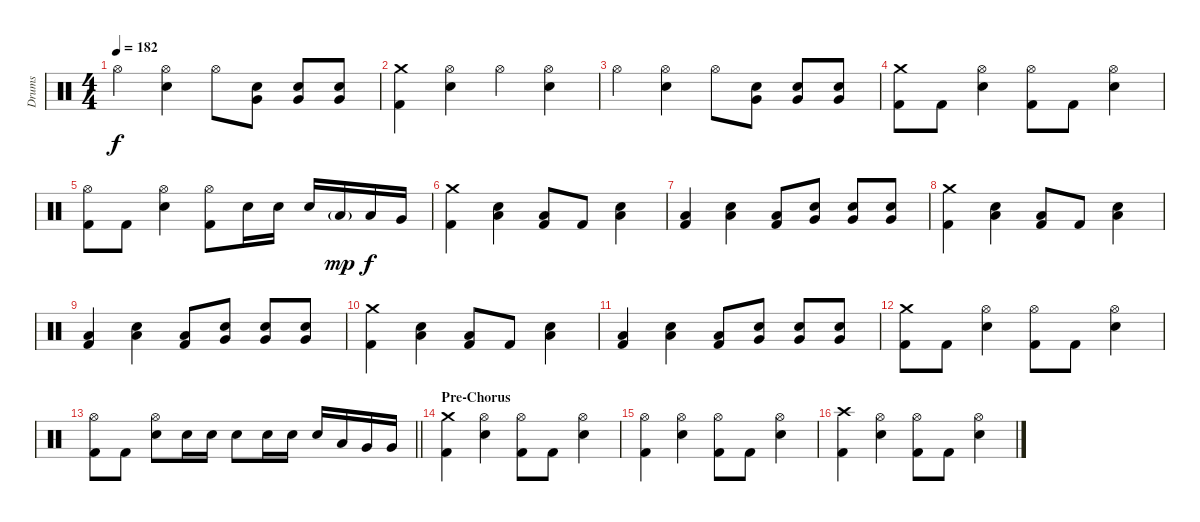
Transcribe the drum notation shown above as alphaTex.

\track ("Drums" "Drums") {instrument percussion}
\staff {score}
\articulation defaults
\ts (4 4)
\tempo 182
\clef neutral
\ks c "Hi-Hat (open)".4{dy f}
("Hi-Hat (open)" "Electric Snare (hit)").4 "Hi-Hat (open)".8 ("Very Low Tom (hit)" "Electric Snare (hit)").8 ("Very Low Tom (hit)" "Electric Snare (hit)").8 ("Very Low Tom (hit)" "Electric Snare (hit)").8 |
("Crash medium (hit)" "Kick (hit) 2").4 ("Hi-Hat (open)" "Electric Snare (hit)").4 "Hi-Hat (open)".4 ("Hi-Hat (open)" "Electric Snare (hit)").4 |
"Hi-Hat (open)".4 ("Hi-Hat (open)" "Electric Snare (hit)").4 "Hi-Hat (open)".8 ("Very Low Tom (hit)" "Electric Snare (hit)").8 ("Very Low Tom (hit)" "Electric Snare (hit)").8 ("Very Low Tom (hit)" "Electric Snare (hit)").8 |
("Crash medium (hit)" "Kick (hit) 2").8 "Kick (hit) 2".8 ("Hi-Hat (open)" "Electric Snare (hit)").4 ("Hi-Hat (open)" "Kick (hit) 2").8 "Kick (hit) 2".8 ("Hi-Hat (open)" "Electric Snare (hit)").4 |
("Hi-Hat (open)" "Kick (hit) 2").8 "Kick (hit) 2".8 ("Hi-Hat (open)" "Electric Snare (hit)").4 ("Hi-Hat (open)" "Kick (hit) 2").8 "Electric Snare (hit)".16 "Electric Snare (hit)".16 "Electric Snare (hit)".16 "Low Tom (hit)"{g}.16{dy mp} "Low Tom (hit)".16{dy f} "Very Low Tom (hit)".16 |
("Crash medium (hit)" "Kick (hit) 2").4 ("Low Floor Tom (hit)" "Electric Snare (hit)").4 ("Low Floor Tom (hit)" "Kick (hit) 2").8 "Kick (hit) 2".8 ("Low Floor Tom (hit)" "Electric Snare (hit)").4 |
("Low Floor Tom (hit)" "Kick (hit) 2").4 ("Low Floor Tom (hit)" "Electric Snare (hit)").4 ("Low Floor Tom (hit)" "Kick (hit) 2").8 ("Very Low Tom (hit)" "Electric Snare (hit)").8 ("Very Low Tom (hit)" "Electric Snare (hit)").8 ("Very Low Tom (hit)" "Electric Snare (hit)").8 |
("Crash medium (hit)" "Kick (hit) 2").4 ("Low Floor Tom (hit)" "Electric Snare (hit)").4 ("Low Floor Tom (hit)" "Kick (hit) 2").8 "Kick (hit) 2".8 ("Low Floor Tom (hit)" "Electric Snare (hit)").4 |
("Low Floor Tom (hit)" "Kick (hit) 2").4 ("Low Floor Tom (hit)" "Electric Snare (hit)").4 ("Low Floor Tom (hit)" "Kick (hit) 2").8 ("Very Low Tom (hit)" "Electric Snare (hit)").8 ("Very Low Tom (hit)" "Electric Snare (hit)").8 ("Very Low Tom (hit)" "Electric Snare (hit)").8 |
("Crash medium (hit)" "Kick (hit) 2").4 ("Low Floor Tom (hit)" "Electric Snare (hit)").4 ("Low Floor Tom (hit)" "Kick (hit) 2").8 "Kick (hit) 2".8 ("Low Floor Tom (hit)" "Electric Snare (hit)").4 |
("Low Floor Tom (hit)" "Kick (hit) 2").4 ("Low Floor Tom (hit)" "Electric Snare (hit)").4 ("Low Floor Tom (hit)" "Kick (hit) 2").8 ("Very Low Tom (hit)" "Electric Snare (hit)").8 ("Very Low Tom (hit)" "Electric Snare (hit)").8 ("Very Low Tom (hit)" "Electric Snare (hit)").8 |
("Crash medium (hit)" "Kick (hit) 2").8 "Kick (hit) 2".8 ("Hi-Hat (open)" "Electric Snare (hit)").4 ("Hi-Hat (open)" "Kick (hit) 2").8 "Kick (hit) 2".8 ("Hi-Hat (open)" "Electric Snare (hit)").4 |
\barLineRight lightlight
("Hi-Hat (open)" "Kick (hit) 2").8 "Kick (hit) 2".8 ("Hi-Hat (open)" "Electric Snare (hit)").8 "Electric Snare (hit)".16 "Electric Snare (hit)".16 "Electric Snare (hit)".8 "Electric Snare (hit)".16 "Electric Snare (hit)".16 "Electric Snare (hit)".16 "Low Tom (hit)".16 "Very Low Tom (hit)".16 "Very Low Tom (hit)".16 |
\section ("" "Pre-Chorus")
("Crash medium (hit)" "Kick (hit) 2").4 ("Hi-Hat (open)" "Electric Snare (hit)").4 ("Hi-Hat (open)" "Kick (hit) 2").8 "Kick (hit) 2".8 ("Hi-Hat (open)" "Electric Snare (hit)").4 |
("Hi-Hat (open)" "Kick (hit) 2").4 ("Hi-Hat (open)" "Electric Snare (hit)").4 ("Hi-Hat (open)" "Kick (hit) 2").8 "Kick (hit) 2".8 ("Hi-Hat (open)" "Electric Snare (hit)").4 |
("Crash high (hit)" "Kick (hit) 2").4 ("Hi-Hat (open)" "Electric Snare (hit)").4 ("Hi-Hat (open)" "Kick (hit) 2").8 "Kick (hit) 2".8 ("Hi-Hat (open)" "Electric Snare (hit)").4
